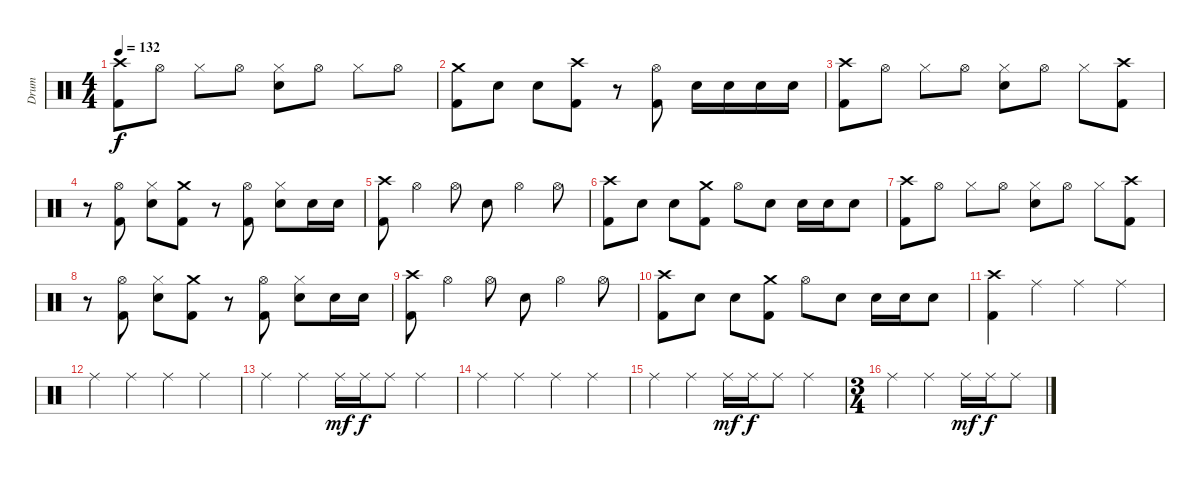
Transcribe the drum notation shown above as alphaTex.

\track ("Drum" "Drum") {instrument percussion}
\staff {score}
\articulation defaults
\ts (4 4)
\tempo 132
\clef neutral
\ks c
("Kick (hit) 2" "Crash high (hit)").8{dy f} "Hi-Hat (open)".8 "Hi-Hat (closed)".8 "Hi-Hat (open)".8 ("Hi-Hat (closed)" "Electric Snare (hit)").8 "Hi-Hat (open)".8 "Hi-Hat (closed)".8 "Hi-Hat (open)".8 |
("Kick (hit) 2" "Crash medium (hit)").8 "Electric Snare (hit)".8 "Electric Snare (hit)".8 ("Kick (hit) 2" "Crash high (hit)").8 r.8 ("Kick (hit) 2" "Hi-Hat (open)").8 "Electric Snare (hit)".16 "Electric Snare (hit)".16 "Electric Snare (hit)".16 "Electric Snare (hit)".16 |
("Crash high (hit)" "Kick (hit) 2").8 "Hi-Hat (open)".8 "Hi-Hat (closed)".8 "Hi-Hat (open)".8 ("Hi-Hat (closed)" "Electric Snare (hit)").8 "Hi-Hat (open)".8 "Hi-Hat (closed)".8 ("Crash high (hit)" "Kick (hit) 2").8 |
r.8 ("Hi-Hat (open)" "Kick (hit) 2").8 ("Electric Snare (hit)" "Hi-Hat (closed)").8 ("Crash medium (hit)" "Kick (hit) 2").8 r.8 ("Kick (hit) 2" "Hi-Hat (open)").8 ("Electric Snare (hit)" "Hi-Hat (closed)").8 "Electric Snare (hit)".16 "Electric Snare (hit)".16 |
("Kick (hit) 2" "Crash high (hit)").8 "Hi-Hat (open)".4 "Hi-Hat (open)".8 "Electric Snare (hit)".8 "Hi-Hat (open)".4 "Hi-Hat (open)".8 |
("Kick (hit) 2" "Crash high (hit)").8 "Electric Snare (hit)".8 "Electric Snare (hit)".8 ("Kick (hit) 2" "Crash medium (hit)").8 "Hi-Hat (open)".8 "Electric Snare (hit)".8 "Electric Snare (hit)".16 "Electric Snare (hit)".16 "Electric Snare (hit)".8 |
("Crash high (hit)" "Kick (hit) 2").8 "Hi-Hat (open)".8 "Hi-Hat (closed)".8 "Hi-Hat (open)".8 ("Hi-Hat (closed)" "Electric Snare (hit)").8 "Hi-Hat (open)".8 "Hi-Hat (closed)".8 ("Crash high (hit)" "Kick (hit) 2").8 |
r.8 ("Hi-Hat (open)" "Kick (hit) 2").8 ("Electric Snare (hit)" "Hi-Hat (closed)").8 ("Crash medium (hit)" "Kick (hit) 2").8 r.8 ("Kick (hit) 2" "Hi-Hat (open)").8 ("Electric Snare (hit)" "Hi-Hat (closed)").8 "Electric Snare (hit)".16 "Electric Snare (hit)".16 |
("Kick (hit) 2" "Crash high (hit)").8 "Hi-Hat (open)".4 "Hi-Hat (open)".8 "Electric Snare (hit)".8 "Hi-Hat (open)".4 "Hi-Hat (open)".8 |
("Kick (hit) 2" "Crash high (hit)").8 "Electric Snare (hit)".8 "Electric Snare (hit)".8 ("Kick (hit) 2" "Crash medium (hit)").8 "Hi-Hat (open)".8 "Electric Snare (hit)".8 "Electric Snare (hit)".16 "Electric Snare (hit)".16 "Electric Snare (hit)".8 |
("Kick (hit) 2" "Crash high (hit)").4 "Ride (middle)".4 "Ride (middle)".4 "Ride (middle)".4 |
"Ride (middle)".4 "Ride (middle)".4 "Ride (middle)".4 "Ride (middle)".4 |
"Ride (middle)".4 "Ride (middle)".4 "Ride (middle)".16{dy mf} "Ride (middle)".16{dy f} "Ride (middle)".8 "Ride (middle)".4 |
"Ride (middle)".4 "Ride (middle)".4 "Ride (middle)".4 "Ride (middle)".4 |
"Ride (middle)".4 "Ride (middle)".4 "Ride (middle)".16{dy mf} "Ride (middle)".16{dy f} "Ride (middle)".8 "Ride (middle)".4 |
\ts (3 4)
"Ride (middle)".4 "Ride (middle)".4 "Ride (middle)".16{dy mf} "Ride (middle)".16{dy f} "Ride (middle)".8
